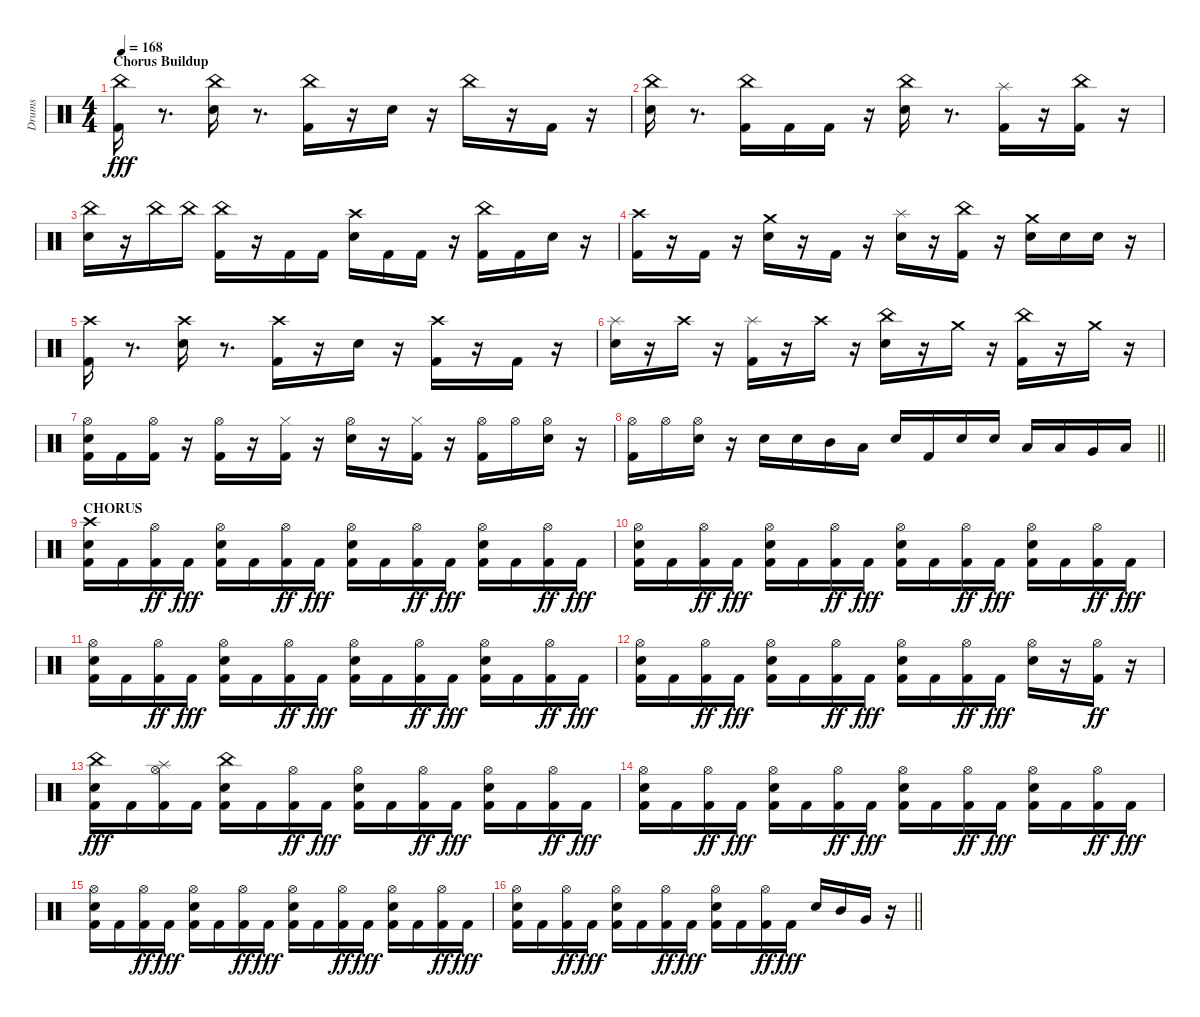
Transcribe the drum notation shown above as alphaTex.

\track ("Drums" "Drums") {instrument percussion}
\staff {score}
\articulation defaults
\ts (4 4)
\section ("" "Chorus Buildup")
\tempo 168
\clef neutral
\ks c
("Kick (hit) 2" "China (hit)").16{dy fff} r.8{d} ("Snare (hit) 2" "China (hit)").16 r.8{d} ("Kick (hit) 2" "China (hit)").16 r.16 "Snare (hit) 2".16 r.16 "China (hit)".16 r.16 "Kick (hit) 2".16 r.16 |
("Snare (hit) 2" "China (hit)").16 r.8{d} ("Kick (hit) 2" "China (hit)").16 "Kick (hit) 2".16 "Kick (hit) 2".16 r.16 ("Snare (hit) 2" "China (hit)").16 r.8{d} ("Kick (hit) 2" "Splash (hit)").16 r.16 ("Kick (hit) 2" "China (hit)").16 r.16 |
("Snare (hit) 2" "China (hit)").16 r.16 "China (hit)".16 "China (hit)".16 ("Kick (hit) 2" "China (hit)").16 r.16 "Kick (hit) 2".16 "Kick (hit) 2".16 ("Snare (hit) 2" "Crash high (hit)").16 "Kick (hit) 2".16 "Kick (hit) 2".16 r.16 ("Kick (hit) 2" "China (hit)").16 "Kick (hit) 2".16 "Snare (hit) 2".16 r.16 |
("Kick (hit) 2" "Crash high (hit)").16 r.16 "Kick (hit) 2".16 r.16 ("Snare (hit) 2" "Crash medium (hit)").16 r.16 "Kick (hit) 2".16 r.16 ("Snare (hit) 2" "Splash (hit)").16 r.16 ("Kick (hit) 2" "China (hit)").16 r.16 ("Snare (hit) 2" "Crash medium (hit)").16 "Snare (hit) 2".16 "Snare (hit) 2".16 r.16 |
("Kick (hit) 2" "Crash high (hit)").16 r.8{d} ("Snare (hit) 2" "Crash high (hit)").16 r.8{d} ("Kick (hit) 2" "Crash high (hit)").16 r.16 "Snare (hit) 2".16 r.16 ("Kick (hit) 2" "Crash high (hit)").16 r.16 "Kick (hit) 2".16 r.16 |
("Snare (hit) 2" "Splash (hit)").16 r.16 "Crash high (hit)".16 r.16 ("Kick (hit) 2" "Splash (hit)").16 r.16 "Crash high (hit)".16 r.16 ("Snare (hit) 2" "China (hit)").16 r.16 "Crash medium (hit)".16 r.16 ("Kick (hit) 2" "China (hit)").16 r.16 "Crash medium (hit)".16 r.16 |
("Kick (hit) 2" "Snare (hit) 2" "Hi-Hat (open)").16 "Kick (hit) 2".16 ("Kick (hit) 2" "Hi-Hat (open)").16 r.16 ("Kick (hit) 2" "Hi-Hat (open)").16 r.16 ("Kick (hit) 2" "Hi-Hat (closed)").16 r.16 ("Snare (hit) 2" "Hi-Hat (open)").16 r.16 ("Kick (hit) 2" "Hi-Hat (closed)").16 r.16 ("Kick (hit) 2" "Hi-Hat (open)").16 "Hi-Hat (open)".16 ("Snare (hit) 2" "Hi-Hat (open)").16 r.16 |
\barLineRight lightlight
("Kick (hit) 2" "Hi-Hat (open)").16 "Hi-Hat (open)".16 ("Snare (hit) 2" "Hi-Hat (open)").16 r.16 "Snare (hit) 2".16 "Snare (hit) 2".16 "Mid Tom (hit)".16 "Low Tom (hit)".16 "Snare (hit) 2".16 "Kick (hit) 2".16 "Snare (hit) 2".16 "Snare (hit) 2".16 "Low Tom (hit)".16 "Low Tom (hit)".16 "Very Low Tom (hit)".16 "Low Floor Tom (hit)".16 |
\section ("" "CHORUS")
("Kick (hit) 2" "Snare (hit) 2" "Crash high (hit)").16 "Kick (hit) 2".16 ("Kick (hit) 2" "Hi-Hat (open)").16{dy ff} "Kick (hit) 2".16{dy fff} ("Kick (hit) 2" "Snare (hit) 2" "Hi-Hat (open)").16 "Kick (hit) 2".16 ("Kick (hit) 2" "Hi-Hat (open)").16{dy ff} "Kick (hit) 2".16{dy fff} ("Kick (hit) 2" "Snare (hit) 2" "Hi-Hat (open)").16 "Kick (hit) 2".16 ("Kick (hit) 2" "Hi-Hat (open)").16{dy ff} "Kick (hit) 2".16{dy fff} ("Kick (hit) 2" "Snare (hit) 2" "Hi-Hat (open)").16 "Kick (hit) 2".16 ("Kick (hit) 2" "Hi-Hat (open)").16{dy ff} "Kick (hit) 2".16{dy fff} |
("Kick (hit) 2" "Snare (hit) 2" "Hi-Hat (open)").16 "Kick (hit) 2".16 ("Kick (hit) 2" "Hi-Hat (open)").16{dy ff} "Kick (hit) 2".16{dy fff} ("Kick (hit) 2" "Snare (hit) 2" "Hi-Hat (open)").16 "Kick (hit) 2".16 ("Kick (hit) 2" "Hi-Hat (open)").16{dy ff} "Kick (hit) 2".16{dy fff} ("Kick (hit) 2" "Snare (hit) 2" "Hi-Hat (open)").16 "Kick (hit) 2".16 ("Kick (hit) 2" "Hi-Hat (open)").16{dy ff} "Kick (hit) 2".16{dy fff} ("Kick (hit) 2" "Snare (hit) 2" "Hi-Hat (open)").16 "Kick (hit) 2".16 ("Kick (hit) 2" "Hi-Hat (open)").16{dy ff} "Kick (hit) 2".16{dy fff} |
("Kick (hit) 2" "Snare (hit) 2" "Hi-Hat (open)").16 "Kick (hit) 2".16 ("Kick (hit) 2" "Hi-Hat (open)").16{dy ff} "Kick (hit) 2".16{dy fff} ("Kick (hit) 2" "Snare (hit) 2" "Hi-Hat (open)").16 "Kick (hit) 2".16 ("Kick (hit) 2" "Hi-Hat (open)").16{dy ff} "Kick (hit) 2".16{dy fff} ("Kick (hit) 2" "Snare (hit) 2" "Hi-Hat (open)").16 "Kick (hit) 2".16 ("Kick (hit) 2" "Hi-Hat (open)").16{dy ff} "Kick (hit) 2".16{dy fff} ("Kick (hit) 2" "Snare (hit) 2" "Hi-Hat (open)").16 "Kick (hit) 2".16 ("Kick (hit) 2" "Hi-Hat (open)").16{dy ff} "Kick (hit) 2".16{dy fff} |
("Kick (hit) 2" "Snare (hit) 2" "Hi-Hat (open)").16 "Kick (hit) 2".16 ("Kick (hit) 2" "Hi-Hat (open)").16{dy ff} "Kick (hit) 2".16{dy fff} ("Kick (hit) 2" "Snare (hit) 2" "Hi-Hat (open)").16 "Kick (hit) 2".16 ("Kick (hit) 2" "Hi-Hat (open)").16{dy ff} "Kick (hit) 2".16{dy fff} ("Kick (hit) 2" "Snare (hit) 2" "Hi-Hat (open)").16 "Kick (hit) 2".16 ("Kick (hit) 2" "Hi-Hat (open)").16{dy ff} "Kick (hit) 2".16{dy fff} ("Snare (hit) 2" "Hi-Hat (open)").16 r.16 ("Kick (hit) 2" "Hi-Hat (open)").16{dy ff} r.16 |
("Kick (hit) 2" "Snare (hit) 2" "China (hit)").16{dy fff} "Kick (hit) 2".16 ("Kick (hit) 2" "Hi-Hat (open)" "Splash (hit)").16 "Kick (hit) 2".16 ("Kick (hit) 2" "Snare (hit) 2" "China (hit)").16 "Kick (hit) 2".16 ("Kick (hit) 2" "Hi-Hat (open)").16{dy ff} "Kick (hit) 2".16{dy fff} ("Kick (hit) 2" "Snare (hit) 2" "Hi-Hat (open)").16 "Kick (hit) 2".16 ("Kick (hit) 2" "Hi-Hat (open)").16{dy ff} "Kick (hit) 2".16{dy fff} ("Kick (hit) 2" "Snare (hit) 2" "Hi-Hat (open)").16 "Kick (hit) 2".16 ("Kick (hit) 2" "Hi-Hat (open)").16{dy ff} "Kick (hit) 2".16{dy fff} |
("Kick (hit) 2" "Snare (hit) 2" "Hi-Hat (open)").16 "Kick (hit) 2".16 ("Kick (hit) 2" "Hi-Hat (open)").16{dy ff} "Kick (hit) 2".16{dy fff} ("Kick (hit) 2" "Snare (hit) 2" "Hi-Hat (open)").16 "Kick (hit) 2".16 ("Kick (hit) 2" "Hi-Hat (open)").16{dy ff} "Kick (hit) 2".16{dy fff} ("Kick (hit) 2" "Snare (hit) 2" "Hi-Hat (open)").16 "Kick (hit) 2".16 ("Kick (hit) 2" "Hi-Hat (open)").16{dy ff} "Kick (hit) 2".16{dy fff} ("Kick (hit) 2" "Snare (hit) 2" "Hi-Hat (open)").16 "Kick (hit) 2".16 ("Kick (hit) 2" "Hi-Hat (open)").16{dy ff} "Kick (hit) 2".16{dy fff} |
("Kick (hit) 2" "Snare (hit) 2" "Hi-Hat (open)").16 "Kick (hit) 2".16 ("Kick (hit) 2" "Hi-Hat (open)").16{dy ff} "Kick (hit) 2".16{dy fff} ("Kick (hit) 2" "Snare (hit) 2" "Hi-Hat (open)").16 "Kick (hit) 2".16 ("Kick (hit) 2" "Hi-Hat (open)").16{dy ff} "Kick (hit) 2".16{dy fff} ("Kick (hit) 2" "Snare (hit) 2" "Hi-Hat (open)").16 "Kick (hit) 2".16 ("Kick (hit) 2" "Hi-Hat (open)").16{dy ff} "Kick (hit) 2".16{dy fff} ("Kick (hit) 2" "Snare (hit) 2" "Hi-Hat (open)").16 "Kick (hit) 2".16 ("Kick (hit) 2" "Hi-Hat (open)").16{dy ff} "Kick (hit) 2".16{dy fff} |
\barLineRight lightlight
("Kick (hit) 2" "Snare (hit) 2" "Hi-Hat (open)").16 "Kick (hit) 2".16 ("Kick (hit) 2" "Hi-Hat (open)").16{dy ff} "Kick (hit) 2".16{dy fff} ("Kick (hit) 2" "Snare (hit) 2" "Hi-Hat (open)").16 "Kick (hit) 2".16 ("Kick (hit) 2" "Hi-Hat (open)").16{dy ff} "Kick (hit) 2".16{dy fff} ("Kick (hit) 2" "Snare (hit) 2" "Hi-Hat (open)").16 "Kick (hit) 2".16 ("Kick (hit) 2" "Hi-Hat (open)").16{dy ff} "Kick (hit) 2".16{dy fff} "Snare (hit) 2".16 "Mid Tom (hit)".16 "Very Low Tom (hit)".16 r.16
